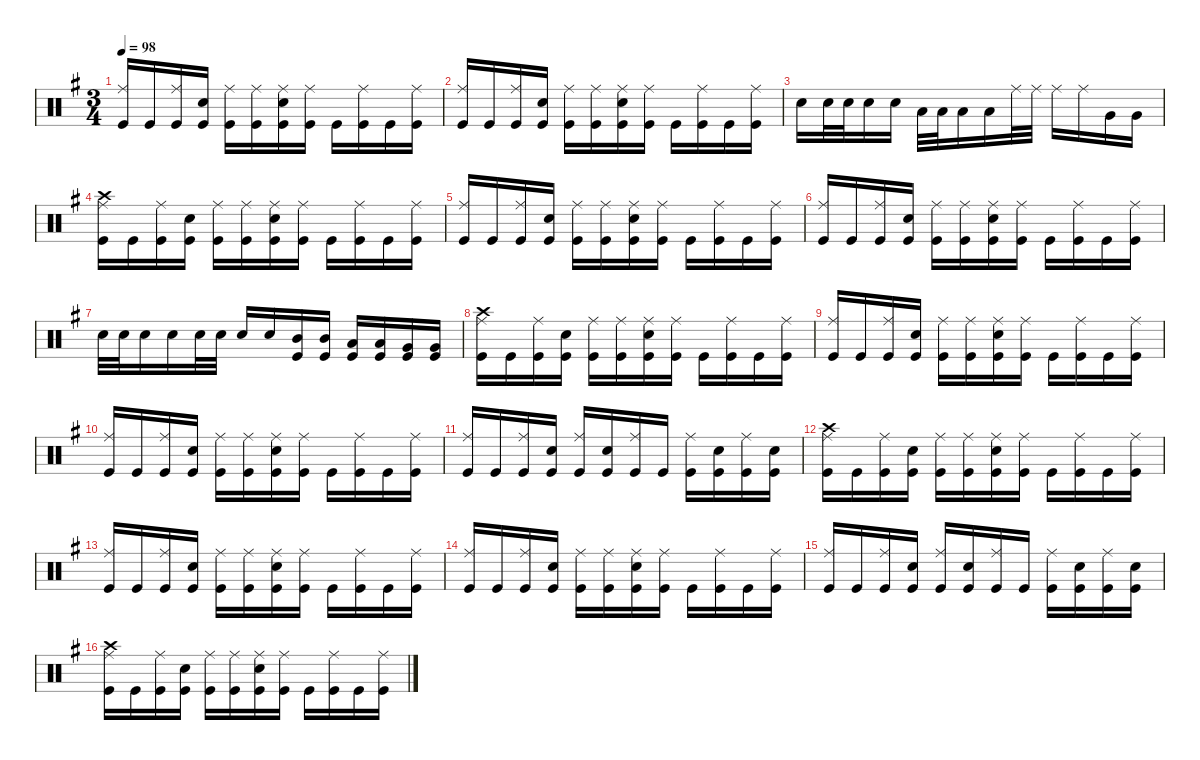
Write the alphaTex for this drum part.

\defaultSystemsLayout 4
\hideDynamics
\bracketExtendMode nobrackets
\singleTrackTrackNamePolicy hidden
\multiTrackTrackNamePolicy hidden
\firstSystemTrackNameMode fullname
\otherSystemsTrackNameOrientation horizontal
\track ("Drums" "drm.") {instrument percussion}
\staff {score}
\articulation defaults
\ts (3 4)
\tempo 98
\clef neutral
\ks eminor
("Ride (middle)"{acc forcenatural} "Kick (hit)"{acc forcenatural}).16{dy f beam Up} "Kick (hit)"{acc forcenatural}.16{beam Up} ("Ride (middle)"{acc forcenatural} "Kick (hit)"{acc forcenatural}).16{beam Up} ("Snare (hit) 2"{acc forcenatural} "Kick (hit)"{acc forcenatural}).16{beam Up} ("Ride (middle)"{acc forcenatural} "Kick (hit)"{acc forcenatural}).16{beam Down} ("Ride (middle)"{acc forcenatural} "Kick (hit)"{acc forcenatural}).16{beam Down} ("Ride (middle)"{acc forcenatural} "Snare (hit) 2"{acc forcenatural} "Kick (hit)"{acc forcenatural}).16{beam Down} ("Ride (middle)"{acc forcenatural} "Kick (hit)"{acc forcenatural}).16{beam Down} "Kick (hit)"{acc forcenatural}.16{beam Down} ("Ride (middle)"{acc forcenatural} "Kick (hit)"{acc forcenatural}).16{beam Down} "Kick (hit)"{acc forcenatural}.16{beam Down} ("Ride (middle)"{acc forcenatural} "Kick (hit)"{acc forcenatural}).16{beam Down} |
("Ride (middle)"{acc forcenatural} "Kick (hit)"{acc forcenatural}).16{beam Up} "Kick (hit)"{acc forcenatural}.16{beam Up} ("Ride (middle)"{acc forcenatural} "Kick (hit)"{acc forcenatural}).16{beam Up} ("Snare (hit) 2"{acc forcenatural} "Kick (hit)"{acc forcenatural}).16{beam Up} ("Ride (middle)"{acc forcenatural} "Kick (hit)"{acc forcenatural}).16{beam Down} ("Ride (middle)"{acc forcenatural} "Kick (hit)"{acc forcenatural}).16{beam Down} ("Ride (middle)"{acc forcenatural} "Snare (hit) 2"{acc forcenatural} "Kick (hit)"{acc forcenatural}).16{beam Down} ("Ride (middle)"{acc forcenatural} "Kick (hit)"{acc forcenatural}).16{beam Down} "Kick (hit)"{acc forcenatural}.16{beam Down} ("Ride (middle)"{acc forcenatural} "Kick (hit)"{acc forcenatural}).16{beam Down} "Kick (hit)"{acc forcenatural}.16{beam Down} ("Ride (middle)"{acc forcenatural} "Kick (hit)"{acc forcenatural}).16{beam Down} |
"Snare (hit) 2"{acc forcenatural}.16{beam Down} "Snare (hit) 2"{acc forcenatural}.32{beam Down} "Snare (hit) 2"{acc forcenatural}.32{beam Down} "Snare (hit) 2"{acc forcenatural}.16{beam Down} "Snare (hit) 2"{acc forcenatural}.16{beam Down} "Low Tom (hit)"{acc forcenatural}.32{beam Down} "Low Tom (hit)"{acc forcenatural}.32{beam Down} "Low Tom (hit)"{acc forcenatural}.16{beam Down} "Low Tom (hit)"{acc forcenatural}.16{beam Down} "Ride (middle)"{acc forcenatural}.32{beam Down} "Ride (middle)"{acc forcenatural}.32{beam Down} "Ride (middle)"{acc forcenatural}.16{beam Down} "Ride (middle)"{acc forcenatural}.16{beam Down} "Very Low Tom (hit)"{acc forcenatural}.16{beam Down} "Very Low Tom (hit)"{acc forcenatural}.16{beam Down} |
("Crash high (hit)"{acc forcenatural} "Ride (middle)"{acc forcenatural} "Kick (hit)"{acc forcenatural}).16{beam Down} "Kick (hit)"{acc forcenatural}.16{beam Down} ("Ride (middle)"{acc forcenatural} "Kick (hit)"{acc forcenatural}).16{beam Down} ("Snare (hit) 2"{acc forcenatural} "Kick (hit)"{acc forcenatural}).16{beam Down} ("Ride (middle)"{acc forcenatural} "Kick (hit)"{acc forcenatural}).16{beam Down} ("Ride (middle)"{acc forcenatural} "Kick (hit)"{acc forcenatural}).16{beam Down} ("Ride (middle)"{acc forcenatural} "Snare (hit) 2"{acc forcenatural} "Kick (hit)"{acc forcenatural}).16{beam Down} ("Ride (middle)"{acc forcenatural} "Kick (hit)"{acc forcenatural}).16{beam Down} "Kick (hit)"{acc forcenatural}.16{beam Down} ("Ride (middle)"{acc forcenatural} "Kick (hit)"{acc forcenatural}).16{beam Down} "Kick (hit)"{acc forcenatural}.16{beam Down} ("Ride (middle)"{acc forcenatural} "Kick (hit)"{acc forcenatural}).16{beam Down} |
("Ride (middle)"{acc forcenatural} "Kick (hit)"{acc forcenatural}).16{beam Up} "Kick (hit)"{acc forcenatural}.16{beam Up} ("Ride (middle)"{acc forcenatural} "Kick (hit)"{acc forcenatural}).16{beam Up} ("Snare (hit) 2"{acc forcenatural} "Kick (hit)"{acc forcenatural}).16{beam Up} ("Ride (middle)"{acc forcenatural} "Kick (hit)"{acc forcenatural}).16{beam Down} ("Ride (middle)"{acc forcenatural} "Kick (hit)"{acc forcenatural}).16{beam Down} ("Ride (middle)"{acc forcenatural} "Snare (hit) 2"{acc forcenatural} "Kick (hit)"{acc forcenatural}).16{beam Down} ("Ride (middle)"{acc forcenatural} "Kick (hit)"{acc forcenatural}).16{beam Down} "Kick (hit)"{acc forcenatural}.16{beam Down} ("Ride (middle)"{acc forcenatural} "Kick (hit)"{acc forcenatural}).16{beam Down} "Kick (hit)"{acc forcenatural}.16{beam Down} ("Ride (middle)"{acc forcenatural} "Kick (hit)"{acc forcenatural}).16{beam Down} |
("Ride (middle)"{acc forcenatural} "Kick (hit)"{acc forcenatural}).16{beam Up} "Kick (hit)"{acc forcenatural}.16{beam Up} ("Ride (middle)"{acc forcenatural} "Kick (hit)"{acc forcenatural}).16{beam Up} ("Snare (hit) 2"{acc forcenatural} "Kick (hit)"{acc forcenatural}).16{beam Up} ("Ride (middle)"{acc forcenatural} "Kick (hit)"{acc forcenatural}).16{beam Down} ("Ride (middle)"{acc forcenatural} "Kick (hit)"{acc forcenatural}).16{beam Down} ("Ride (middle)"{acc forcenatural} "Snare (hit) 2"{acc forcenatural} "Kick (hit)"{acc forcenatural}).16{beam Down} ("Ride (middle)"{acc forcenatural} "Kick (hit)"{acc forcenatural}).16{beam Down} "Kick (hit)"{acc forcenatural}.16{beam Down} ("Ride (middle)"{acc forcenatural} "Kick (hit)"{acc forcenatural}).16{beam Down} "Kick (hit)"{acc forcenatural}.16{beam Down} ("Ride (middle)"{acc forcenatural} "Kick (hit)"{acc forcenatural}).16{beam Down} |
"Snare (hit) 2"{acc forcenatural}.32{beam Down} "Snare (hit) 2"{acc forcenatural}.32{beam Down} "Snare (hit) 2"{acc forcenatural}.16{beam Down} "Snare (hit) 2"{acc forcenatural}.16{beam Down} "Snare (hit) 2"{acc forcenatural}.32{beam Down} "Snare (hit) 2"{acc forcenatural}.32{beam Down} "Snare (hit) 2"{acc forcenatural}.16{beam Up} "Snare (hit) 2"{acc forcenatural}.16{beam Up} ("Mid Tom (hit)"{acc forcenatural} "Kick (hit)"{acc forcenatural}).16{beam Up} ("Mid Tom (hit)"{acc forcenatural} "Kick (hit)"{acc forcenatural}).16{beam Up} ("Low Tom (hit)"{acc forcenatural} "Kick (hit)"{acc forcenatural}).16{beam Up} ("Low Tom (hit)"{acc forcenatural} "Kick (hit)"{acc forcenatural}).16{beam Up} ("Very Low Tom (hit)"{acc forcenatural} "Kick (hit)"{acc forcenatural}).16{beam Up} ("Very Low Tom (hit)"{acc forcenatural} "Kick (hit)"{acc forcenatural}).16{beam Up} |
("Crash high (hit)"{acc forcenatural} "Ride (middle)"{acc forcenatural} "Kick (hit)"{acc forcenatural}).16{beam Down} "Kick (hit)"{acc forcenatural}.16{beam Down} ("Ride (middle)"{acc forcenatural} "Kick (hit)"{acc forcenatural}).16{beam Down} ("Snare (hit) 2"{acc forcenatural} "Kick (hit)"{acc forcenatural}).16{beam Down} ("Ride (middle)"{acc forcenatural} "Kick (hit)"{acc forcenatural}).16{beam Down} ("Ride (middle)"{acc forcenatural} "Kick (hit)"{acc forcenatural}).16{beam Down} ("Ride (middle)"{acc forcenatural} "Snare (hit) 2"{acc forcenatural} "Kick (hit)"{acc forcenatural}).16{beam Down} ("Ride (middle)"{acc forcenatural} "Kick (hit)"{acc forcenatural}).16{beam Down} "Kick (hit)"{acc forcenatural}.16{beam Down} ("Ride (middle)"{acc forcenatural} "Kick (hit)"{acc forcenatural}).16{beam Down} "Kick (hit)"{acc forcenatural}.16{beam Down} ("Ride (middle)"{acc forcenatural} "Kick (hit)"{acc forcenatural}).16{beam Down} |
("Ride (middle)"{acc forcenatural} "Kick (hit)"{acc forcenatural}).16{beam Up} "Kick (hit)"{acc forcenatural}.16{beam Up} ("Ride (middle)"{acc forcenatural} "Kick (hit)"{acc forcenatural}).16{beam Up} ("Snare (hit) 2"{acc forcenatural} "Kick (hit)"{acc forcenatural}).16{beam Up} ("Ride (middle)"{acc forcenatural} "Kick (hit)"{acc forcenatural}).16{beam Down} ("Ride (middle)"{acc forcenatural} "Kick (hit)"{acc forcenatural}).16{beam Down} ("Ride (middle)"{acc forcenatural} "Snare (hit) 2"{acc forcenatural} "Kick (hit)"{acc forcenatural}).16{beam Down} ("Ride (middle)"{acc forcenatural} "Kick (hit)"{acc forcenatural}).16{beam Down} "Kick (hit)"{acc forcenatural}.16{beam Down} ("Ride (middle)"{acc forcenatural} "Kick (hit)"{acc forcenatural}).16{beam Down} "Kick (hit)"{acc forcenatural}.16{beam Down} ("Ride (middle)"{acc forcenatural} "Kick (hit)"{acc forcenatural}).16{beam Down} |
("Ride (middle)"{acc forcenatural} "Kick (hit)"{acc forcenatural}).16{beam Up} "Kick (hit)"{acc forcenatural}.16{beam Up} ("Ride (middle)"{acc forcenatural} "Kick (hit)"{acc forcenatural}).16{beam Up} ("Snare (hit) 2"{acc forcenatural} "Kick (hit)"{acc forcenatural}).16{beam Up} ("Ride (middle)"{acc forcenatural} "Kick (hit)"{acc forcenatural}).16{beam Down} ("Ride (middle)"{acc forcenatural} "Kick (hit)"{acc forcenatural}).16{beam Down} ("Ride (middle)"{acc forcenatural} "Snare (hit) 2"{acc forcenatural} "Kick (hit)"{acc forcenatural}).16{beam Down} ("Ride (middle)"{acc forcenatural} "Kick (hit)"{acc forcenatural}).16{beam Down} "Kick (hit)"{acc forcenatural}.16{beam Down} ("Ride (middle)"{acc forcenatural} "Kick (hit)"{acc forcenatural}).16{beam Down} "Kick (hit)"{acc forcenatural}.16{beam Down} ("Ride (middle)"{acc forcenatural} "Kick (hit)"{acc forcenatural}).16{beam Down} |
("Ride (middle)"{acc forcenatural} "Kick (hit)"{acc forcenatural}).16{beam Up} "Kick (hit)"{acc forcenatural}.16{beam Up} ("Ride (middle)"{acc forcenatural} "Kick (hit)"{acc forcenatural}).16{beam Up} ("Snare (hit) 2"{acc forcenatural} "Kick (hit)"{acc forcenatural}).16{beam Up} ("Ride (middle)"{acc forcenatural} "Kick (hit)"{acc forcenatural}).16{beam Up} ("Snare (hit) 2"{acc forcenatural} "Kick (hit)"{acc forcenatural}).16{beam Up} ("Ride (middle)"{acc forcenatural} "Kick (hit)"{acc forcenatural}).16{beam Up} "Kick (hit)"{acc forcenatural}.16{beam Up} ("Ride (middle)"{acc forcenatural} "Kick (hit)"{acc forcenatural}).16{beam Down} ("Snare (hit) 2"{acc forcenatural} "Kick (hit)"{acc forcenatural}).16{beam Down} ("Ride (middle)"{acc forcenatural} "Kick (hit)"{acc forcenatural}).16{beam Down} ("Snare (hit) 2"{acc forcenatural} "Kick (hit)"{acc forcenatural}).16{beam Down} |
("Crash high (hit)"{acc forcenatural} "Ride (middle)"{acc forcenatural} "Kick (hit)"{acc forcenatural}).16{beam Down} "Kick (hit)"{acc forcenatural}.16{beam Down} ("Ride (middle)"{acc forcenatural} "Kick (hit)"{acc forcenatural}).16{beam Down} ("Snare (hit) 2"{acc forcenatural} "Kick (hit)"{acc forcenatural}).16{beam Down} ("Ride (middle)"{acc forcenatural} "Kick (hit)"{acc forcenatural}).16{beam Down} ("Ride (middle)"{acc forcenatural} "Kick (hit)"{acc forcenatural}).16{beam Down} ("Ride (middle)"{acc forcenatural} "Snare (hit) 2"{acc forcenatural} "Kick (hit)"{acc forcenatural}).16{beam Down} ("Ride (middle)"{acc forcenatural} "Kick (hit)"{acc forcenatural}).16{beam Down} "Kick (hit)"{acc forcenatural}.16{beam Down} ("Ride (middle)"{acc forcenatural} "Kick (hit)"{acc forcenatural}).16{beam Down} "Kick (hit)"{acc forcenatural}.16{beam Down} ("Ride (middle)"{acc forcenatural} "Kick (hit)"{acc forcenatural}).16{beam Down} |
("Ride (middle)"{acc forcenatural} "Kick (hit)"{acc forcenatural}).16{beam Up} "Kick (hit)"{acc forcenatural}.16{beam Up} ("Ride (middle)"{acc forcenatural} "Kick (hit)"{acc forcenatural}).16{beam Up} ("Snare (hit) 2"{acc forcenatural} "Kick (hit)"{acc forcenatural}).16{beam Up} ("Ride (middle)"{acc forcenatural} "Kick (hit)"{acc forcenatural}).16{beam Down} ("Ride (middle)"{acc forcenatural} "Kick (hit)"{acc forcenatural}).16{beam Down} ("Ride (middle)"{acc forcenatural} "Snare (hit) 2"{acc forcenatural} "Kick (hit)"{acc forcenatural}).16{beam Down} ("Ride (middle)"{acc forcenatural} "Kick (hit)"{acc forcenatural}).16{beam Down} "Kick (hit)"{acc forcenatural}.16{beam Down} ("Ride (middle)"{acc forcenatural} "Kick (hit)"{acc forcenatural}).16{beam Down} "Kick (hit)"{acc forcenatural}.16{beam Down} ("Ride (middle)"{acc forcenatural} "Kick (hit)"{acc forcenatural}).16{beam Down} |
("Ride (middle)"{acc forcenatural} "Kick (hit)"{acc forcenatural}).16{beam Up} "Kick (hit)"{acc forcenatural}.16{beam Up} ("Ride (middle)"{acc forcenatural} "Kick (hit)"{acc forcenatural}).16{beam Up} ("Snare (hit) 2"{acc forcenatural} "Kick (hit)"{acc forcenatural}).16{beam Up} ("Ride (middle)"{acc forcenatural} "Kick (hit)"{acc forcenatural}).16{beam Down} ("Ride (middle)"{acc forcenatural} "Kick (hit)"{acc forcenatural}).16{beam Down} ("Ride (middle)"{acc forcenatural} "Snare (hit) 2"{acc forcenatural} "Kick (hit)"{acc forcenatural}).16{beam Down} ("Ride (middle)"{acc forcenatural} "Kick (hit)"{acc forcenatural}).16{beam Down} "Kick (hit)"{acc forcenatural}.16{beam Down} ("Ride (middle)"{acc forcenatural} "Kick (hit)"{acc forcenatural}).16{beam Down} "Kick (hit)"{acc forcenatural}.16{beam Down} ("Ride (middle)"{acc forcenatural} "Kick (hit)"{acc forcenatural}).16{beam Down} |
("Ride (middle)"{acc forcenatural} "Kick (hit)"{acc forcenatural}).16{beam Up} "Kick (hit)"{acc forcenatural}.16{beam Up} ("Ride (middle)"{acc forcenatural} "Kick (hit)"{acc forcenatural}).16{beam Up} ("Snare (hit) 2"{acc forcenatural} "Kick (hit)"{acc forcenatural}).16{beam Up} ("Ride (middle)"{acc forcenatural} "Kick (hit)"{acc forcenatural}).16{beam Up} ("Snare (hit) 2"{acc forcenatural} "Kick (hit)"{acc forcenatural}).16{beam Up} ("Ride (middle)"{acc forcenatural} "Kick (hit)"{acc forcenatural}).16{beam Up} "Kick (hit)"{acc forcenatural}.16{beam Up} ("Ride (middle)"{acc forcenatural} "Kick (hit)"{acc forcenatural}).16{beam Down} ("Snare (hit) 2"{acc forcenatural} "Kick (hit)"{acc forcenatural}).16{beam Down} ("Ride (middle)"{acc forcenatural} "Kick (hit)"{acc forcenatural}).16{beam Down} ("Snare (hit) 2"{acc forcenatural} "Kick (hit)"{acc forcenatural}).16{beam Down} |
("Crash high (hit)"{acc forcenatural} "Ride (middle)"{acc forcenatural} "Kick (hit)"{acc forcenatural}).16{beam Down} "Kick (hit)"{acc forcenatural}.16{beam Down} ("Ride (middle)"{acc forcenatural} "Kick (hit)"{acc forcenatural}).16{beam Down} ("Snare (hit) 2"{acc forcenatural} "Kick (hit)"{acc forcenatural}).16{beam Down} ("Ride (middle)"{acc forcenatural} "Kick (hit)"{acc forcenatural}).16{beam Down} ("Ride (middle)"{acc forcenatural} "Kick (hit)"{acc forcenatural}).16{beam Down} ("Ride (middle)"{acc forcenatural} "Snare (hit) 2"{acc forcenatural} "Kick (hit)"{acc forcenatural}).16{beam Down} ("Ride (middle)"{acc forcenatural} "Kick (hit)"{acc forcenatural}).16{beam Down} "Kick (hit)"{acc forcenatural}.16{beam Down} ("Ride (middle)"{acc forcenatural} "Kick (hit)"{acc forcenatural}).16{beam Down} "Kick (hit)"{acc forcenatural}.16{beam Down} ("Ride (middle)"{acc forcenatural} "Kick (hit)"{acc forcenatural}).16{beam Down}
